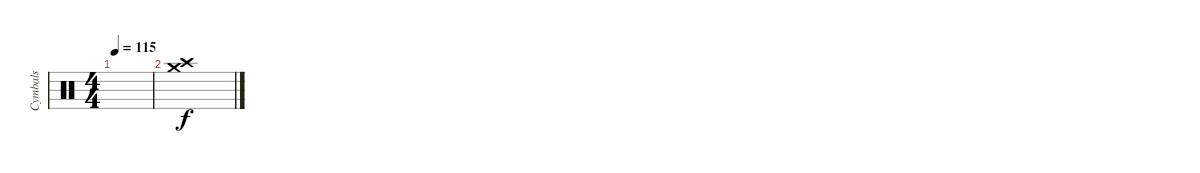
\track ("Cymbals" "Cymbals") {instrument percussion}
\staff {score}
\articulation defaults
\ts (4 4)
\tempo 115
\clef neutral
\ks c
|
("Crash high (hit)" "Crash medium (hit)").1
